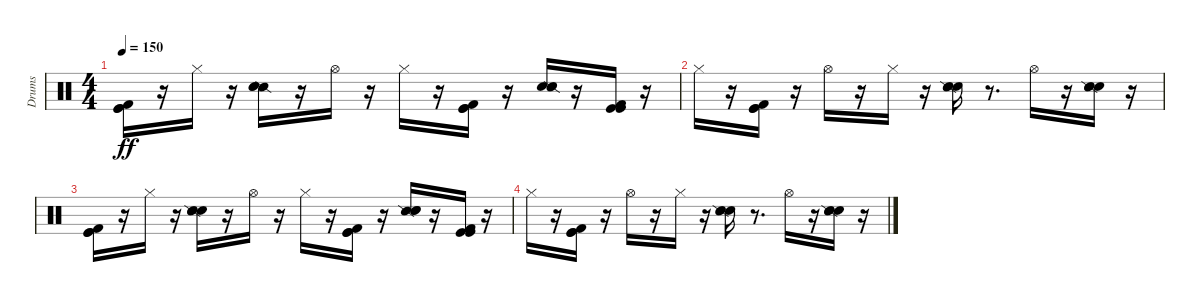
\track ("Drums" "Drums") {instrument percussion}
\staff {score}
\articulation defaults
\ts (4 4)
\tempo 150
\clef neutral
\ks c
("Kick (hit)" "Kick (hit) 2" "Kick (hit)").16{dy ff} r.16 "Hi-Hat (closed)".16 r.16 ("Snare (side stick) 2" "Metronome (bell)" "Electric Snare (hit)").16 r.16 "Hi-Hat (open)".16 r.16 "Hi-Hat (closed)".16 r.16 ("Kick (hit)" "Kick (hit) 2" "Kick (hit)").16 r.16 ("Metronome (bell)" "Snare (side stick) 2" "Electric Snare (hit)").16 r.16 ("Kick (hit)" "Kick (hit) 2" "Kick (hit)").16 r.16 |
"Hi-Hat (closed)".16 r.16 ("Kick (hit)" "Kick (hit) 2" "Kick (hit)").16 r.16 "Hi-Hat (open)".16 r.16 "Hi-Hat (closed)".16 r.16 ("Metronome (bell)" "Snare (side stick) 2" "Electric Snare (hit)").16 r.8{d} "Hi-Hat (open)".16 r.16 ("Metronome (bell)" "Snare (side stick) 2" "Electric Snare (hit)").16 r.16 |
("Kick (hit)" "Kick (hit) 2" "Kick (hit)").16 r.16 "Hi-Hat (closed)".16 r.16 ("Metronome (bell)" "Snare (side stick) 2" "Electric Snare (hit)").16 r.16 "Hi-Hat (open)".16 r.16 "Hi-Hat (closed)".16 r.16 ("Kick (hit)" "Kick (hit) 2" "Kick (hit)").16 r.16 ("Snare (side stick) 2" "Metronome (bell)" "Electric Snare (hit)").16 r.16 ("Kick (hit)" "Kick (hit) 2" "Kick (hit)").16 r.16 |
"Hi-Hat (closed)".16 r.16 ("Kick (hit)" "Kick (hit) 2" "Kick (hit)").16 r.16 "Hi-Hat (open)".16 r.16 "Hi-Hat (closed)".16 r.16 ("Metronome (bell)" "Snare (side stick) 2" "Electric Snare (hit)").16 r.8{d} "Hi-Hat (open)".16 r.16 ("Metronome (bell)" "Snare (side stick) 2" "Electric Snare (hit)").16 r.16
